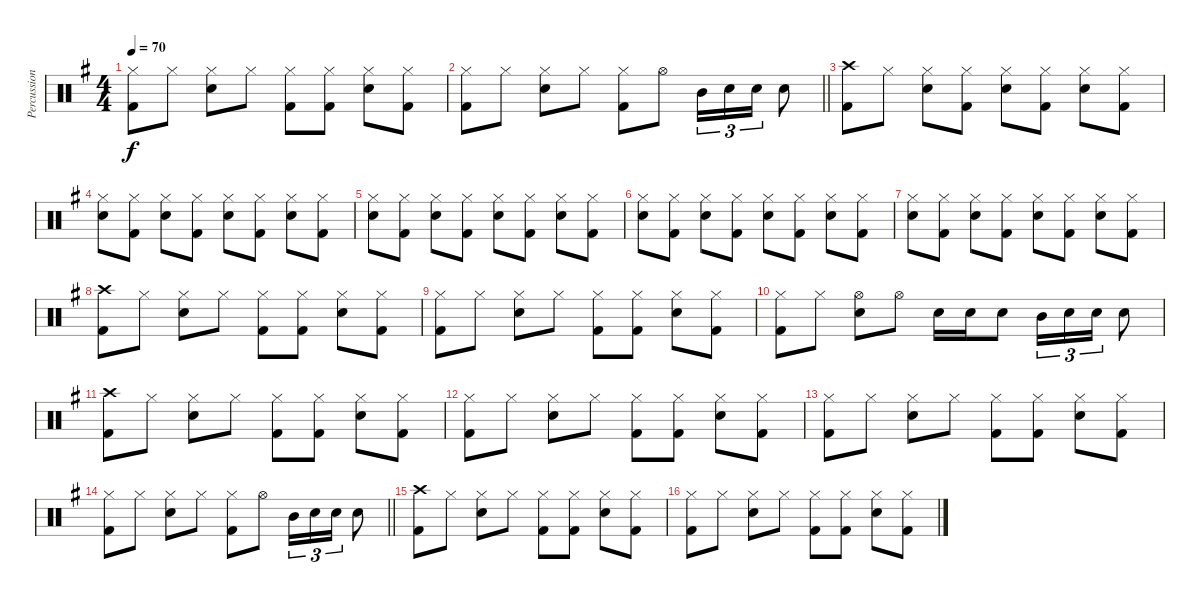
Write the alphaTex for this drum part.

\track ("Percussion" "Percussion") {instrument percussion}
\staff {score}
\articulation defaults
\ts (4 4)
\tempo 70
\clef neutral
\ks g
("Hi-Hat (closed)" "Kick (hit) 2").8{dy f} "Hi-Hat (closed)".8 ("Hi-Hat (closed)" "Snare (hit) 2").8 "Hi-Hat (closed)".8 ("Hi-Hat (closed)" "Kick (hit) 2").8 ("Hi-Hat (closed)" "Kick (hit) 2").8 ("Hi-Hat (closed)" "Snare (hit) 2").8 ("Hi-Hat (closed)" "Kick (hit) 2").8 |
\barLineRight lightlight
("Hi-Hat (closed)" "Kick (hit) 2").8 "Hi-Hat (closed)".8 ("Hi-Hat (closed)" "Snare (hit) 2").8 "Hi-Hat (closed)".8 ("Hi-Hat (closed)" "Kick (hit) 2").8 "Hi-Hat (open)".8 "Mid Tom (hit)".16{tu (3 2)} "Snare (hit) 2".16{tu (3 2)} "Snare (hit) 2".16{tu (3 2)} "Snare (hit) 2".8 |
("Crash high (hit)" "Kick (hit) 2").8 "Hi-Hat (closed)".8 ("Hi-Hat (closed)" "Snare (hit) 2").8 ("Hi-Hat (closed)" "Kick (hit) 2").8 ("Hi-Hat (closed)" "Snare (hit) 2").8 ("Hi-Hat (closed)" "Kick (hit) 2").8 ("Hi-Hat (closed)" "Snare (hit) 2").8 ("Hi-Hat (closed)" "Kick (hit) 2").8 |
("Hi-Hat (closed)" "Snare (hit) 2").8 ("Hi-Hat (closed)" "Kick (hit) 2").8 ("Hi-Hat (closed)" "Snare (hit) 2").8 ("Hi-Hat (closed)" "Kick (hit) 2").8 ("Hi-Hat (closed)" "Snare (hit) 2").8 ("Hi-Hat (closed)" "Kick (hit) 2").8 ("Hi-Hat (closed)" "Snare (hit) 2").8 ("Hi-Hat (closed)" "Kick (hit) 2").8 |
("Hi-Hat (closed)" "Snare (hit) 2").8 ("Hi-Hat (closed)" "Kick (hit) 2").8 ("Hi-Hat (closed)" "Snare (hit) 2").8 ("Hi-Hat (closed)" "Kick (hit) 2").8 ("Hi-Hat (closed)" "Snare (hit) 2").8 ("Hi-Hat (closed)" "Kick (hit) 2").8 ("Hi-Hat (closed)" "Snare (hit) 2").8 ("Hi-Hat (closed)" "Kick (hit) 2").8 |
("Hi-Hat (closed)" "Snare (hit) 2").8 ("Hi-Hat (closed)" "Kick (hit) 2").8 ("Hi-Hat (closed)" "Snare (hit) 2").8 ("Hi-Hat (closed)" "Kick (hit) 2").8 ("Hi-Hat (closed)" "Snare (hit) 2").8 ("Hi-Hat (closed)" "Kick (hit) 2").8 ("Hi-Hat (closed)" "Snare (hit) 2").8 ("Hi-Hat (closed)" "Kick (hit) 2").8 |
("Hi-Hat (closed)" "Snare (hit) 2").8 ("Hi-Hat (closed)" "Kick (hit) 2").8 ("Hi-Hat (closed)" "Snare (hit) 2").8 ("Hi-Hat (closed)" "Kick (hit) 2").8 ("Hi-Hat (closed)" "Snare (hit) 2").8 ("Hi-Hat (closed)" "Kick (hit) 2").8 ("Hi-Hat (closed)" "Snare (hit) 2").8 ("Hi-Hat (closed)" "Kick (hit) 2").8 |
("Crash high (hit)" "Kick (hit) 2").8 "Hi-Hat (closed)".8 ("Hi-Hat (closed)" "Snare (hit) 2").8 "Hi-Hat (closed)".8 ("Hi-Hat (closed)" "Kick (hit) 2").8 ("Hi-Hat (closed)" "Kick (hit) 2").8 ("Hi-Hat (closed)" "Snare (hit) 2").8 ("Hi-Hat (closed)" "Kick (hit) 2").8 |
("Hi-Hat (closed)" "Kick (hit) 2").8 "Hi-Hat (closed)".8 ("Hi-Hat (closed)" "Snare (hit) 2").8 "Hi-Hat (closed)".8 ("Hi-Hat (closed)" "Kick (hit) 2").8 ("Hi-Hat (closed)" "Kick (hit) 2").8 ("Hi-Hat (closed)" "Snare (hit) 2").8 ("Hi-Hat (closed)" "Kick (hit) 2").8 |
("Hi-Hat (closed)" "Kick (hit) 2").8 "Hi-Hat (closed)".8 ("Hi-Hat (open)" "Snare (hit) 2").8 "Hi-Hat (open)".8 "Snare (hit) 2".16 "Snare (hit) 2".16 "Snare (hit) 2".8 "Mid Tom (hit)".16{tu (3 2)} "Snare (hit) 2".16{tu (3 2)} "Snare (hit) 2".16{tu (3 2)} "Snare (hit) 2".8 |
("Crash high (hit)" "Kick (hit) 2").8 "Hi-Hat (closed)".8 ("Hi-Hat (closed)" "Snare (hit) 2").8 "Hi-Hat (closed)".8 ("Hi-Hat (closed)" "Kick (hit) 2").8 ("Hi-Hat (closed)" "Kick (hit) 2").8 ("Hi-Hat (closed)" "Snare (hit) 2").8 ("Hi-Hat (closed)" "Kick (hit) 2").8 |
("Hi-Hat (closed)" "Kick (hit) 2").8 "Hi-Hat (closed)".8 ("Hi-Hat (closed)" "Snare (hit) 2").8 "Hi-Hat (closed)".8 ("Hi-Hat (closed)" "Kick (hit) 2").8 ("Hi-Hat (closed)" "Kick (hit) 2").8 ("Hi-Hat (closed)" "Snare (hit) 2").8 ("Hi-Hat (closed)" "Kick (hit) 2").8 |
("Hi-Hat (closed)" "Kick (hit) 2").8 "Hi-Hat (closed)".8 ("Hi-Hat (closed)" "Snare (hit) 2").8 "Hi-Hat (closed)".8 ("Hi-Hat (closed)" "Kick (hit) 2").8 ("Hi-Hat (closed)" "Kick (hit) 2").8 ("Hi-Hat (closed)" "Snare (hit) 2").8 ("Hi-Hat (closed)" "Kick (hit) 2").8 |
\barLineRight lightlight
("Hi-Hat (closed)" "Kick (hit) 2").8 "Hi-Hat (closed)".8 ("Hi-Hat (closed)" "Snare (hit) 2").8 "Hi-Hat (closed)".8 ("Hi-Hat (closed)" "Kick (hit) 2").8 "Hi-Hat (open)".8 "Mid Tom (hit)".16{tu (3 2)} "Snare (hit) 2".16{tu (3 2)} "Snare (hit) 2".16{tu (3 2)} "Snare (hit) 2".8 |
("Crash high (hit)" "Kick (hit) 2").8 "Hi-Hat (closed)".8 ("Hi-Hat (closed)" "Snare (hit) 2").8 "Hi-Hat (closed)".8 ("Hi-Hat (closed)" "Kick (hit) 2").8 ("Hi-Hat (closed)" "Kick (hit) 2").8 ("Hi-Hat (closed)" "Snare (hit) 2").8 ("Hi-Hat (closed)" "Kick (hit) 2").8 |
("Hi-Hat (closed)" "Kick (hit) 2").8 "Hi-Hat (closed)".8 ("Hi-Hat (closed)" "Snare (hit) 2").8 "Hi-Hat (closed)".8 ("Hi-Hat (closed)" "Kick (hit) 2").8 ("Hi-Hat (closed)" "Kick (hit) 2").8 ("Hi-Hat (closed)" "Snare (hit) 2").8 ("Hi-Hat (closed)" "Kick (hit) 2").8
